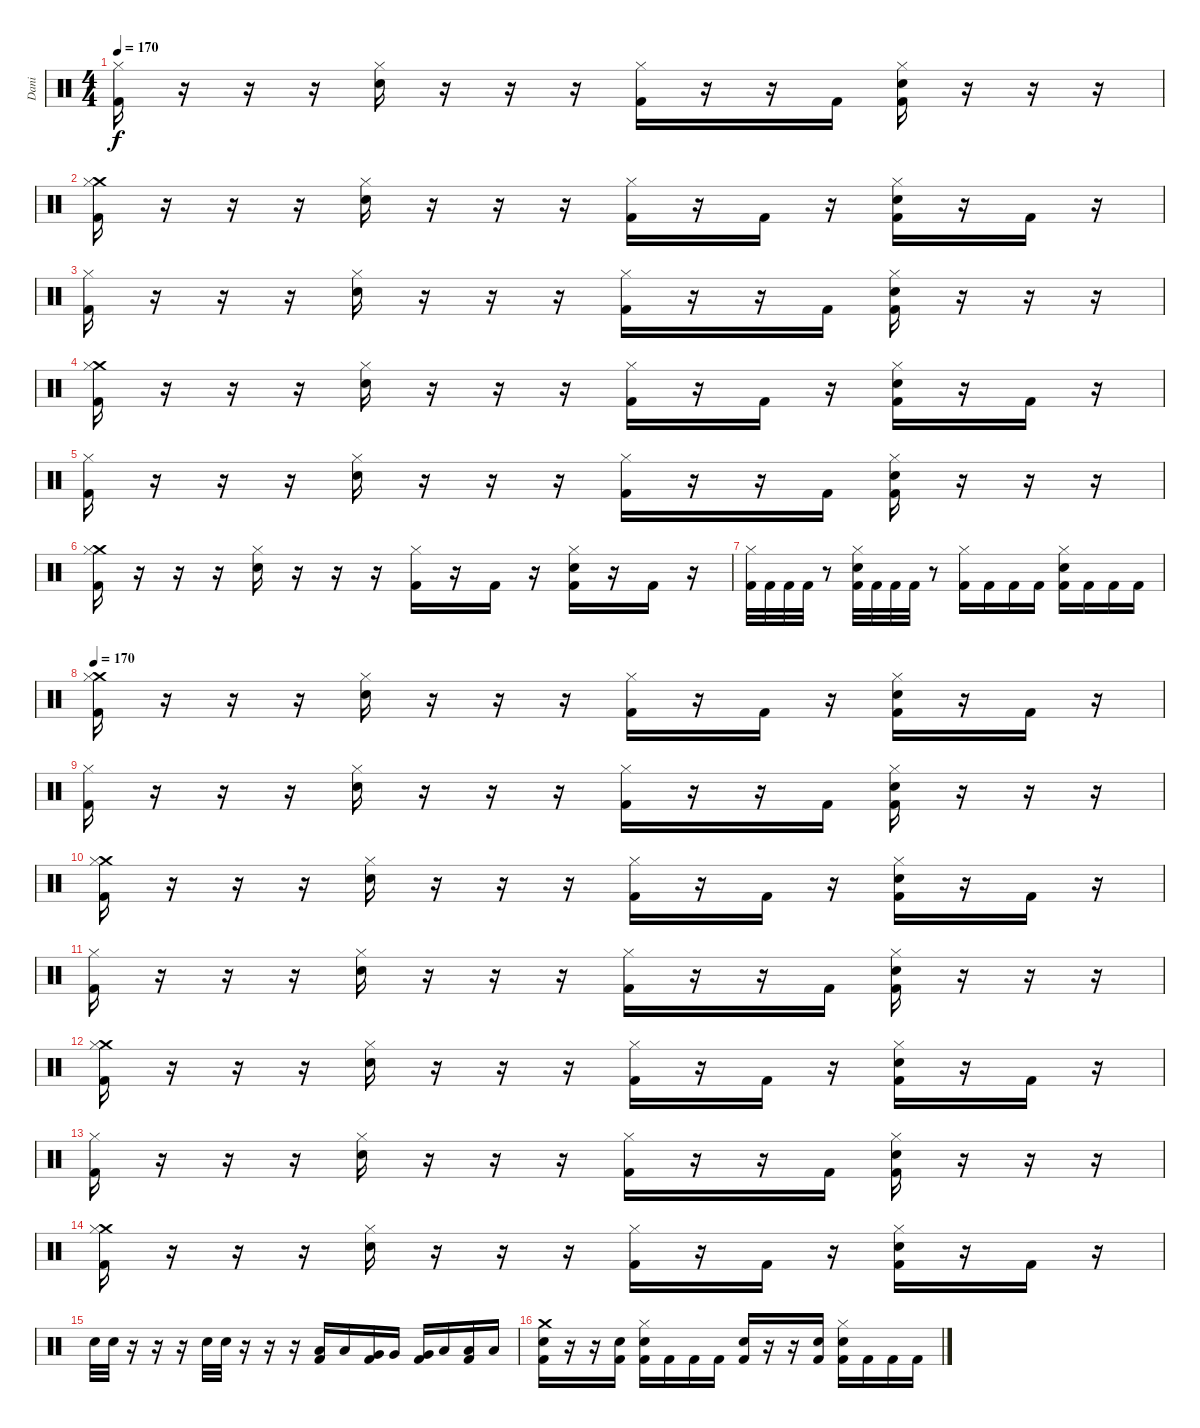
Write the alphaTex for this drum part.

\track ("Dani" "Dani") {instrument percussion}
\staff {score}
\articulation defaults
\ts (4 4)
\tempo 170
\clef neutral
\ks c
("Hi-Hat (closed)" "Kick (hit) 2").16{dy f} r.16 r.16 r.16 ("Hi-Hat (closed)" "Electric Snare (hit)").16 r.16 r.16 r.16 ("Hi-Hat (closed)" "Kick (hit) 2").16 r.16 r.16 "Kick (hit) 2".16 ("Hi-Hat (closed)" "Electric Snare (hit)" "Kick (hit) 2").16 r.16 r.16 r.16 |
("Crash medium (hit)" "Hi-Hat (closed)" "Kick (hit) 2").16 r.16 r.16 r.16 ("Hi-Hat (closed)" "Electric Snare (hit)").16 r.16 r.16 r.16 ("Hi-Hat (closed)" "Kick (hit) 2").16 r.16 "Kick (hit) 2".16 r.16 ("Hi-Hat (closed)" "Electric Snare (hit)" "Kick (hit) 2").16 r.16 "Kick (hit) 2".16 r.16 |
("Hi-Hat (closed)" "Kick (hit) 2").16 r.16 r.16 r.16 ("Hi-Hat (closed)" "Electric Snare (hit)").16 r.16 r.16 r.16 ("Hi-Hat (closed)" "Kick (hit) 2").16 r.16 r.16 "Kick (hit) 2".16 ("Hi-Hat (closed)" "Electric Snare (hit)" "Kick (hit) 2").16 r.16 r.16 r.16 |
("Crash medium (hit)" "Hi-Hat (closed)" "Kick (hit) 2").16 r.16 r.16 r.16 ("Hi-Hat (closed)" "Electric Snare (hit)").16 r.16 r.16 r.16 ("Hi-Hat (closed)" "Kick (hit) 2").16 r.16 "Kick (hit) 2".16 r.16 ("Hi-Hat (closed)" "Electric Snare (hit)" "Kick (hit) 2").16 r.16 "Kick (hit) 2".16 r.16 |
("Hi-Hat (closed)" "Kick (hit) 2").16 r.16 r.16 r.16 ("Hi-Hat (closed)" "Electric Snare (hit)").16 r.16 r.16 r.16 ("Hi-Hat (closed)" "Kick (hit) 2").16 r.16 r.16 "Kick (hit) 2".16 ("Hi-Hat (closed)" "Electric Snare (hit)" "Kick (hit) 2").16 r.16 r.16 r.16 |
("Crash medium (hit)" "Hi-Hat (closed)" "Kick (hit) 2").16 r.16 r.16 r.16 ("Hi-Hat (closed)" "Electric Snare (hit)").16 r.16 r.16 r.16 ("Hi-Hat (closed)" "Kick (hit) 2").16 r.16 "Kick (hit) 2".16 r.16 ("Hi-Hat (closed)" "Electric Snare (hit)" "Kick (hit) 2").16 r.16 "Kick (hit) 2".16 r.16 |
("Hi-Hat (closed)" "Kick (hit) 2").32 "Kick (hit) 2".32 "Kick (hit) 2".32 "Kick (hit) 2".32 r.8 ("Hi-Hat (closed)" "Electric Snare (hit)" "Kick (hit) 2").32 "Kick (hit) 2".32 "Kick (hit) 2".32 "Kick (hit) 2".32 r.8 ("Hi-Hat (closed)" "Kick (hit) 2").16 "Kick (hit) 2".16 "Kick (hit) 2".16 "Kick (hit) 2".16 ("Hi-Hat (closed)" "Electric Snare (hit)" "Kick (hit) 2").16 "Kick (hit) 2".16 "Kick (hit) 2".16 "Kick (hit) 2".16 |
\tempo 170
("Crash medium (hit)" "Hi-Hat (closed)" "Kick (hit) 2").16 r.16 r.16 r.16 ("Hi-Hat (closed)" "Electric Snare (hit)").16 r.16 r.16 r.16 ("Hi-Hat (closed)" "Kick (hit) 2").16 r.16 "Kick (hit) 2".16 r.16 ("Hi-Hat (closed)" "Electric Snare (hit)" "Kick (hit) 2").16 r.16 "Kick (hit) 2".16 r.16 |
("Hi-Hat (closed)" "Kick (hit) 2").16 r.16 r.16 r.16 ("Hi-Hat (closed)" "Electric Snare (hit)").16 r.16 r.16 r.16 ("Hi-Hat (closed)" "Kick (hit) 2").16 r.16 r.16 "Kick (hit) 2".16 ("Hi-Hat (closed)" "Electric Snare (hit)" "Kick (hit) 2").16 r.16 r.16 r.16 |
("Crash medium (hit)" "Hi-Hat (closed)" "Kick (hit) 2").16 r.16 r.16 r.16 ("Hi-Hat (closed)" "Electric Snare (hit)").16 r.16 r.16 r.16 ("Hi-Hat (closed)" "Kick (hit) 2").16 r.16 "Kick (hit) 2".16 r.16 ("Hi-Hat (closed)" "Electric Snare (hit)" "Kick (hit) 2").16 r.16 "Kick (hit) 2".16 r.16 |
("Hi-Hat (closed)" "Kick (hit) 2").16 r.16 r.16 r.16 ("Hi-Hat (closed)" "Electric Snare (hit)").16 r.16 r.16 r.16 ("Hi-Hat (closed)" "Kick (hit) 2").16 r.16 r.16 "Kick (hit) 2".16 ("Hi-Hat (closed)" "Electric Snare (hit)" "Kick (hit) 2").16 r.16 r.16 r.16 |
("Crash medium (hit)" "Hi-Hat (closed)" "Kick (hit) 2").16 r.16 r.16 r.16 ("Hi-Hat (closed)" "Electric Snare (hit)").16 r.16 r.16 r.16 ("Hi-Hat (closed)" "Kick (hit) 2").16 r.16 "Kick (hit) 2".16 r.16 ("Hi-Hat (closed)" "Electric Snare (hit)" "Kick (hit) 2").16 r.16 "Kick (hit) 2".16 r.16 |
("Hi-Hat (closed)" "Kick (hit) 2").16 r.16 r.16 r.16 ("Hi-Hat (closed)" "Electric Snare (hit)").16 r.16 r.16 r.16 ("Hi-Hat (closed)" "Kick (hit) 2").16 r.16 r.16 "Kick (hit) 2".16 ("Hi-Hat (closed)" "Electric Snare (hit)" "Kick (hit) 2").16 r.16 r.16 r.16 |
("Crash medium (hit)" "Hi-Hat (closed)" "Kick (hit) 2").16 r.16 r.16 r.16 ("Hi-Hat (closed)" "Electric Snare (hit)").16 r.16 r.16 r.16 ("Hi-Hat (closed)" "Kick (hit) 2").16 r.16 "Kick (hit) 2".16 r.16 ("Hi-Hat (closed)" "Electric Snare (hit)" "Kick (hit) 2").16 r.16 "Kick (hit) 2".16 r.16 |
"Electric Snare (hit)".32 "Electric Snare (hit)".32 r.16 r.16 r.16 "Electric Snare (hit)".32 "Electric Snare (hit)".32 r.16 r.16 r.16 ("Low Tom (hit)" "Kick (hit) 2").16 "Low Tom (hit)".16 ("Very Low Tom (hit)" "Kick (hit) 2").16 "Very Low Tom (hit)".16 ("Very Low Tom (hit)" "Kick (hit) 2").16 "Low Floor Tom (hit)".16 ("Low Floor Tom (hit)" "Kick (hit) 2").16 "Low Floor Tom (hit)".16 |
("Crash medium (hit)" "Electric Snare (hit)" "Kick (hit) 2").16 r.16 r.16 ("Electric Snare (hit)" "Kick (hit) 2").16 ("Hi-Hat (closed)" "Electric Snare (hit)" "Kick (hit) 2").16 "Kick (hit) 2".16 "Kick (hit) 2".16 "Kick (hit) 2".16 ("Electric Snare (hit)" "Kick (hit) 2").16 r.16 r.16 ("Electric Snare (hit)" "Kick (hit) 2").16 ("Hi-Hat (closed)" "Electric Snare (hit)" "Kick (hit) 2").16 "Kick (hit) 2".16 "Kick (hit) 2".16 "Kick (hit) 2".16
